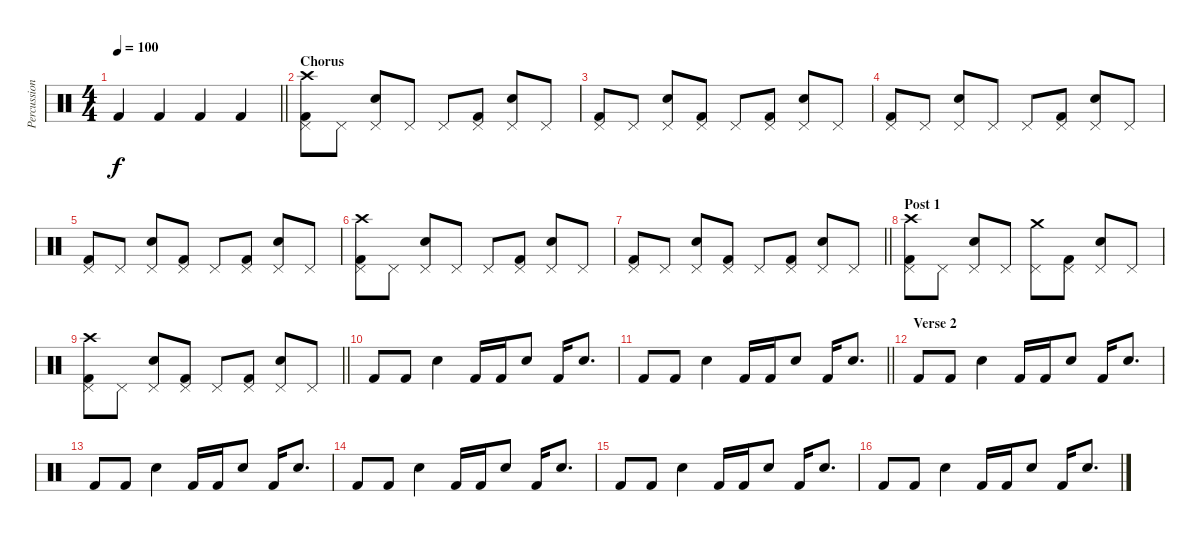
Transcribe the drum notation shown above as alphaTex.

\track ("Percussion" "Percussion") {instrument percussion}
\staff {score}
\articulation defaults
\ts (4 4)
\tempo 100
\clef neutral
\barLineRight lightlight
\ks c "Kick (hit) 2".4{dy f} "Kick (hit) 2".4 "Kick (hit) 2".4 "Kick (hit) 2".4
|
\section ("" "Chorus")
("Pedal Hi-Hat (hit)" "Crash high (hit)" "Kick (hit) 2").8 "Pedal Hi-Hat (hit)".8 ("Pedal Hi-Hat (hit)" "Electric Snare (hit)").8 "Pedal Hi-Hat (hit)".8 "Pedal Hi-Hat (hit)".8 ("Pedal Hi-Hat (hit)" "Kick (hit) 2").8 ("Pedal Hi-Hat (hit)" "Electric Snare (hit)").8 "Pedal Hi-Hat (hit)".8 |
("Pedal Hi-Hat (hit)" "Kick (hit) 2").8 "Pedal Hi-Hat (hit)".8 ("Pedal Hi-Hat (hit)" "Electric Snare (hit)").8 ("Pedal Hi-Hat (hit)" "Kick (hit) 2").8 "Pedal Hi-Hat (hit)".8 ("Pedal Hi-Hat (hit)" "Kick (hit) 2").8 ("Pedal Hi-Hat (hit)" "Electric Snare (hit)").8 "Pedal Hi-Hat (hit)".8 |
("Pedal Hi-Hat (hit)" "Kick (hit) 2").8 "Pedal Hi-Hat (hit)".8 ("Pedal Hi-Hat (hit)" "Electric Snare (hit)").8 "Pedal Hi-Hat (hit)".8 "Pedal Hi-Hat (hit)".8 ("Pedal Hi-Hat (hit)" "Kick (hit) 2").8 ("Pedal Hi-Hat (hit)" "Electric Snare (hit)").8 "Pedal Hi-Hat (hit)".8 |
("Pedal Hi-Hat (hit)" "Kick (hit) 2").8 "Pedal Hi-Hat (hit)".8 ("Pedal Hi-Hat (hit)" "Electric Snare (hit)").8 ("Pedal Hi-Hat (hit)" "Kick (hit) 2").8 "Pedal Hi-Hat (hit)".8 ("Pedal Hi-Hat (hit)" "Kick (hit) 2").8 ("Pedal Hi-Hat (hit)" "Electric Snare (hit)").8 "Pedal Hi-Hat (hit)".8 |
("Pedal Hi-Hat (hit)" "Crash high (hit)" "Kick (hit) 2").8 "Pedal Hi-Hat (hit)".8 ("Pedal Hi-Hat (hit)" "Electric Snare (hit)").8 "Pedal Hi-Hat (hit)".8 "Pedal Hi-Hat (hit)".8 ("Pedal Hi-Hat (hit)" "Kick (hit) 2").8 ("Pedal Hi-Hat (hit)" "Electric Snare (hit)").8 "Pedal Hi-Hat (hit)".8 |
\barLineRight lightlight
("Pedal Hi-Hat (hit)" "Kick (hit) 2").8 "Pedal Hi-Hat (hit)".8 ("Pedal Hi-Hat (hit)" "Electric Snare (hit)").8 ("Pedal Hi-Hat (hit)" "Kick (hit) 2").8 "Pedal Hi-Hat (hit)".8 ("Pedal Hi-Hat (hit)" "Kick (hit) 2").8 ("Pedal Hi-Hat (hit)" "Electric Snare (hit)").8 "Pedal Hi-Hat (hit)".8 |
\section ("" "Post 1")
("Pedal Hi-Hat (hit)" "Crash high (hit)" "Kick (hit) 2").8 "Pedal Hi-Hat (hit)".8 ("Pedal Hi-Hat (hit)" "Electric Snare (hit)").8 "Pedal Hi-Hat (hit)".8 ("Pedal Hi-Hat (hit)" "Crash medium (hit)").8 ("Pedal Hi-Hat (hit)" "Kick (hit) 2").8 ("Pedal Hi-Hat (hit)" "Electric Snare (hit)").8 "Pedal Hi-Hat (hit)".8 |
\barLineRight lightlight
("Pedal Hi-Hat (hit)" "Crash high (hit)" "Kick (hit) 2").8 "Pedal Hi-Hat (hit)".8 ("Pedal Hi-Hat (hit)" "Electric Snare (hit)").8 ("Pedal Hi-Hat (hit)" "Kick (hit) 2").8 "Pedal Hi-Hat (hit)".8 ("Pedal Hi-Hat (hit)" "Kick (hit) 2").8 ("Pedal Hi-Hat (hit)" "Electric Snare (hit)").8 "Pedal Hi-Hat (hit)".8 |
"Kick (hit) 2".8 "Kick (hit) 2".8 "Hand Clap (hit)".4 "Kick (hit) 2".16 "Kick (hit) 2".16 "Hand Clap (hit)".8 "Kick (hit) 2".16 "Hand Clap (hit)".8{d} |
\barLineRight lightlight "Kick (hit) 2".8 "Kick (hit) 2".8 "Hand Clap (hit)".4 "Kick (hit) 2".16 "Kick (hit) 2".16 "Hand Clap (hit)".8 "Kick (hit) 2".16 "Hand Clap (hit)".8{d}
|
\section ("" "Verse 2")
"Kick (hit) 2".8 "Kick (hit) 2".8 "Hand Clap (hit)".4 "Kick (hit) 2".16 "Kick (hit) 2".16 "Hand Clap (hit)".8 "Kick (hit) 2".16 "Hand Clap (hit)".8{d} |
"Kick (hit) 2".8 "Kick (hit) 2".8 "Hand Clap (hit)".4 "Kick (hit) 2".16 "Kick (hit) 2".16 "Hand Clap (hit)".8 "Kick (hit) 2".16 "Hand Clap (hit)".8{d} |
"Kick (hit) 2".8 "Kick (hit) 2".8 "Hand Clap (hit)".4 "Kick (hit) 2".16 "Kick (hit) 2".16 "Hand Clap (hit)".8 "Kick (hit) 2".16 "Hand Clap (hit)".8{d} |
"Kick (hit) 2".8 "Kick (hit) 2".8 "Hand Clap (hit)".4 "Kick (hit) 2".16 "Kick (hit) 2".16 "Hand Clap (hit)".8 "Kick (hit) 2".16 "Hand Clap (hit)".8{d} |
"Kick (hit) 2".8 "Kick (hit) 2".8 "Hand Clap (hit)".4 "Kick (hit) 2".16 "Kick (hit) 2".16 "Hand Clap (hit)".8 "Kick (hit) 2".16 "Hand Clap (hit)".8{d}
